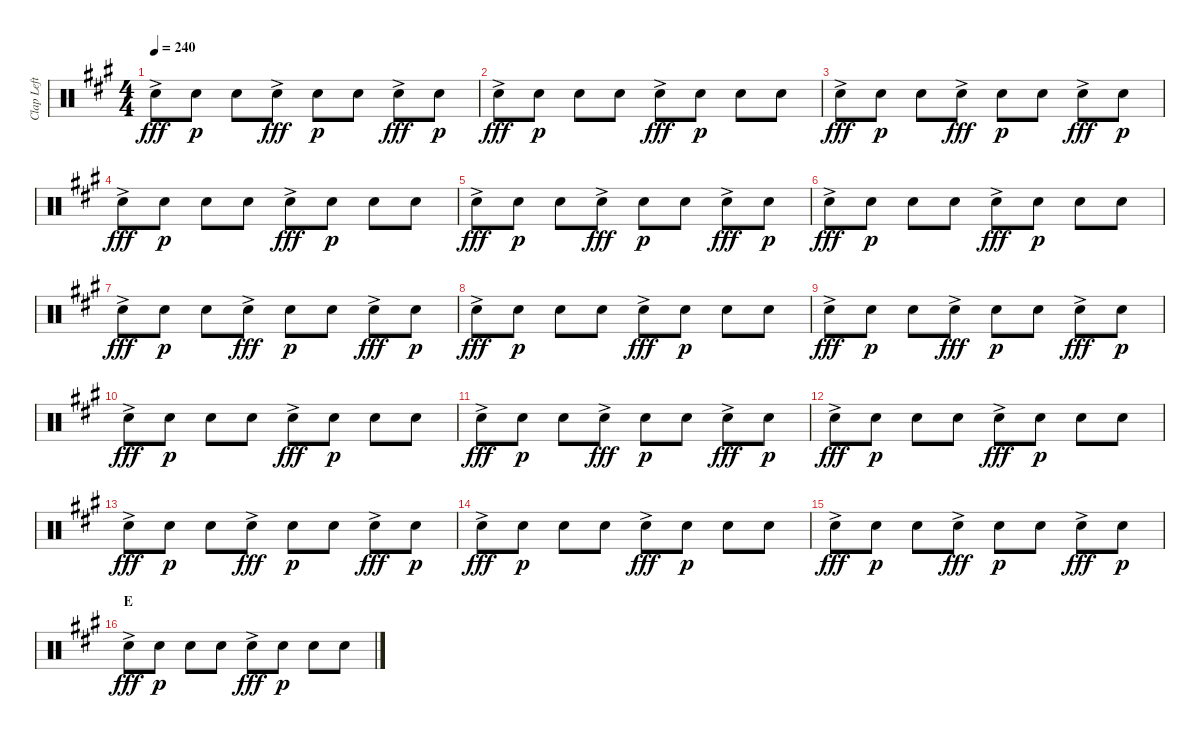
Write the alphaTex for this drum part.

\track ("Clap Left" "Clap Left") {instrument percussion}
\staff {score}
\articulation defaults
\ts (4 4)
\tempo 240
\clef neutral
\ks a "Hand Clap (hit)"{ac}.8{dy fff} "Hand Clap (hit)".8{dy p} "Hand Clap (hit)".8 "Hand Clap (hit)"{ac}.8{dy fff} "Hand Clap (hit)".8{dy p} "Hand Clap (hit)".8 "Hand Clap (hit)"{ac}.8{dy fff} "Hand Clap (hit)".8{dy p}
|
"Hand Clap (hit)"{ac}.8{dy fff} "Hand Clap (hit)".8{dy p} "Hand Clap (hit)".8 "Hand Clap (hit)".8 "Hand Clap (hit)"{ac}.8{dy fff} "Hand Clap (hit)".8{dy p} "Hand Clap (hit)".8 "Hand Clap (hit)".8 |
"Hand Clap (hit)"{ac}.8{dy fff} "Hand Clap (hit)".8{dy p} "Hand Clap (hit)".8 "Hand Clap (hit)"{ac}.8{dy fff} "Hand Clap (hit)".8{dy p} "Hand Clap (hit)".8 "Hand Clap (hit)"{ac}.8{dy fff} "Hand Clap (hit)".8{dy p} |
"Hand Clap (hit)"{ac}.8{dy fff} "Hand Clap (hit)".8{dy p} "Hand Clap (hit)".8 "Hand Clap (hit)".8 "Hand Clap (hit)"{ac}.8{dy fff} "Hand Clap (hit)".8{dy p} "Hand Clap (hit)".8 "Hand Clap (hit)".8 |
"Hand Clap (hit)"{ac}.8{dy fff} "Hand Clap (hit)".8{dy p} "Hand Clap (hit)".8 "Hand Clap (hit)"{ac}.8{dy fff} "Hand Clap (hit)".8{dy p} "Hand Clap (hit)".8 "Hand Clap (hit)"{ac}.8{dy fff} "Hand Clap (hit)".8{dy p} |
"Hand Clap (hit)"{ac}.8{dy fff} "Hand Clap (hit)".8{dy p} "Hand Clap (hit)".8 "Hand Clap (hit)".8 "Hand Clap (hit)"{ac}.8{dy fff} "Hand Clap (hit)".8{dy p} "Hand Clap (hit)".8 "Hand Clap (hit)".8 |
"Hand Clap (hit)"{ac}.8{dy fff} "Hand Clap (hit)".8{dy p} "Hand Clap (hit)".8 "Hand Clap (hit)"{ac}.8{dy fff} "Hand Clap (hit)".8{dy p} "Hand Clap (hit)".8 "Hand Clap (hit)"{ac}.8{dy fff} "Hand Clap (hit)".8{dy p} |
"Hand Clap (hit)"{ac}.8{dy fff} "Hand Clap (hit)".8{dy p} "Hand Clap (hit)".8 "Hand Clap (hit)".8 "Hand Clap (hit)"{ac}.8{dy fff} "Hand Clap (hit)".8{dy p} "Hand Clap (hit)".8 "Hand Clap (hit)".8 |
"Hand Clap (hit)"{ac}.8{dy fff} "Hand Clap (hit)".8{dy p} "Hand Clap (hit)".8 "Hand Clap (hit)"{ac}.8{dy fff} "Hand Clap (hit)".8{dy p} "Hand Clap (hit)".8 "Hand Clap (hit)"{ac}.8{dy fff} "Hand Clap (hit)".8{dy p} |
"Hand Clap (hit)"{ac}.8{dy fff} "Hand Clap (hit)".8{dy p} "Hand Clap (hit)".8 "Hand Clap (hit)".8 "Hand Clap (hit)"{ac}.8{dy fff} "Hand Clap (hit)".8{dy p} "Hand Clap (hit)".8 "Hand Clap (hit)".8 |
"Hand Clap (hit)"{ac}.8{dy fff} "Hand Clap (hit)".8{dy p} "Hand Clap (hit)".8 "Hand Clap (hit)"{ac}.8{dy fff} "Hand Clap (hit)".8{dy p} "Hand Clap (hit)".8 "Hand Clap (hit)"{ac}.8{dy fff} "Hand Clap (hit)".8{dy p} |
"Hand Clap (hit)"{ac}.8{dy fff} "Hand Clap (hit)".8{dy p} "Hand Clap (hit)".8 "Hand Clap (hit)".8 "Hand Clap (hit)"{ac}.8{dy fff} "Hand Clap (hit)".8{dy p} "Hand Clap (hit)".8 "Hand Clap (hit)".8 |
"Hand Clap (hit)"{ac}.8{dy fff} "Hand Clap (hit)".8{dy p} "Hand Clap (hit)".8 "Hand Clap (hit)"{ac}.8{dy fff} "Hand Clap (hit)".8{dy p} "Hand Clap (hit)".8 "Hand Clap (hit)"{ac}.8{dy fff} "Hand Clap (hit)".8{dy p} |
"Hand Clap (hit)"{ac}.8{dy fff} "Hand Clap (hit)".8{dy p} "Hand Clap (hit)".8 "Hand Clap (hit)".8 "Hand Clap (hit)"{ac}.8{dy fff} "Hand Clap (hit)".8{dy p} "Hand Clap (hit)".8 "Hand Clap (hit)".8 |
"Hand Clap (hit)"{ac}.8{dy fff} "Hand Clap (hit)".8{dy p} "Hand Clap (hit)".8 "Hand Clap (hit)"{ac}.8{dy fff} "Hand Clap (hit)".8{dy p} "Hand Clap (hit)".8 "Hand Clap (hit)"{ac}.8{dy fff} "Hand Clap (hit)".8{dy p} |
\section ("" "E")
"Hand Clap (hit)"{ac}.8{dy fff} "Hand Clap (hit)".8{dy p} "Hand Clap (hit)".8 "Hand Clap (hit)".8 "Hand Clap (hit)"{ac}.8{dy fff} "Hand Clap (hit)".8{dy p} "Hand Clap (hit)".8 "Hand Clap (hit)".8
